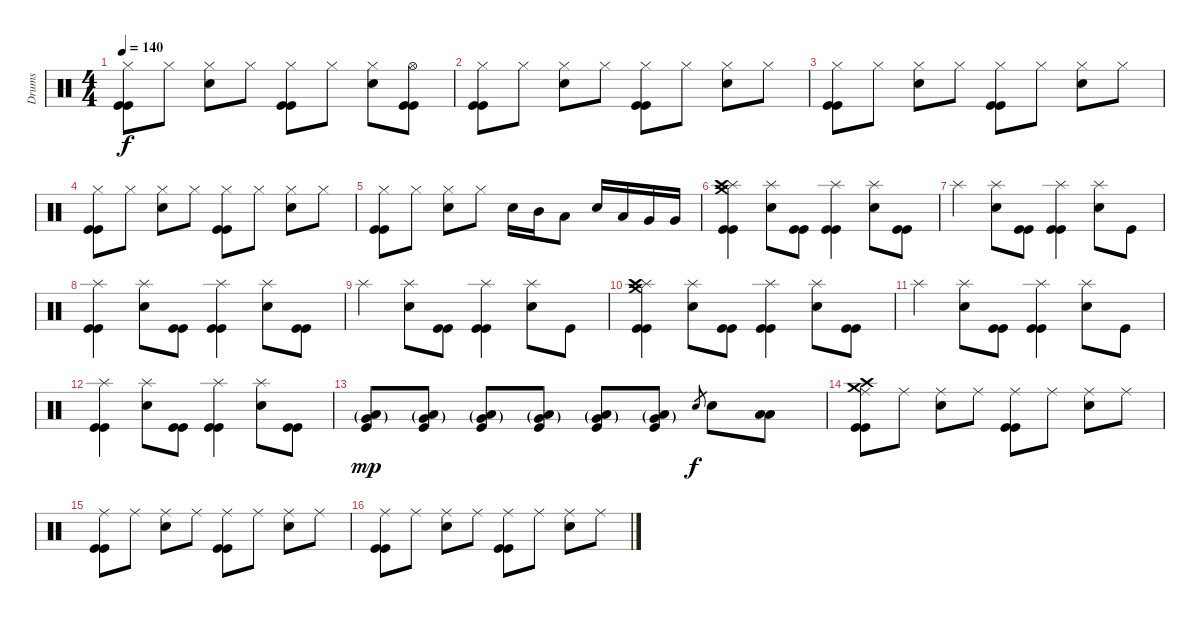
\track ("Drums" "Drums") {instrument percussion}
\staff {score}
\articulation defaults
\ts (4 4)
\tempo 140
\clef neutral
\ks c
("Hi-Hat (closed)" "Kick (hit)" "Kick (hit)").8{dy f} "Hi-Hat (closed)".8 ("Hi-Hat (closed)" "Snare (hit) 2").8 "Hi-Hat (closed)".8 ("Hi-Hat (closed)" "Kick (hit)" "Kick (hit)").8 "Hi-Hat (closed)".8 ("Hi-Hat (closed)" "Snare (hit) 2").8 ("Hi-Hat (open)" "Kick (hit)" "Kick (hit)").8 |
("Hi-Hat (closed)" "Kick (hit)" "Kick (hit)").8 "Hi-Hat (closed)".8 ("Hi-Hat (closed)" "Snare (hit) 2").8 "Hi-Hat (closed)".8 ("Hi-Hat (closed)" "Kick (hit)" "Kick (hit)").8 "Hi-Hat (closed)".8 ("Hi-Hat (closed)" "Snare (hit) 2").8 "Hi-Hat (closed)".8 |
("Hi-Hat (closed)" "Kick (hit)" "Kick (hit)").8 "Hi-Hat (closed)".8 ("Hi-Hat (closed)" "Snare (hit) 2").8 "Hi-Hat (closed)".8 ("Hi-Hat (closed)" "Kick (hit)" "Kick (hit)").8 "Hi-Hat (closed)".8 ("Hi-Hat (closed)" "Snare (hit) 2").8 "Hi-Hat (closed)".8 |
("Hi-Hat (closed)" "Kick (hit)" "Kick (hit)").8 "Hi-Hat (closed)".8 ("Hi-Hat (closed)" "Snare (hit) 2").8 "Hi-Hat (closed)".8 ("Hi-Hat (closed)" "Kick (hit)" "Kick (hit)").8 "Hi-Hat (closed)".8 ("Hi-Hat (closed)" "Snare (hit) 2").8 "Hi-Hat (closed)".8 |
("Hi-Hat (closed)" "Kick (hit)" "Kick (hit)").8 "Hi-Hat (closed)".8 ("Hi-Hat (closed)" "Snare (hit) 2").8 "Hi-Hat (closed)".8 "Snare (hit) 2".16 "Mid Tom (hit)".16 "Low Tom (hit)".8 "Snare (hit) 2".16 "Low Tom (hit)".16 "Very Low Tom (hit)".16 "Very Low Tom (hit)".16 |
("Splash (hit)" "Crash high (hit)" "Crash medium (hit)" "Kick (hit)" "Kick (hit)").4 ("Splash (hit)" "Snare (hit) 2").8 ("Kick (hit)" "Kick (hit)").8 ("Splash (hit)" "Kick (hit)" "Kick (hit)").4 ("Splash (hit)" "Snare (hit) 2").8 ("Kick (hit)" "Kick (hit)").8 |
"Splash (hit)".4 ("Splash (hit)" "Snare (hit) 2").8 ("Kick (hit)" "Kick (hit)").8 ("Splash (hit)" "Kick (hit)" "Kick (hit)").4 ("Splash (hit)" "Snare (hit) 2").8 "Kick (hit)".8 |
("Splash (hit)" "Kick (hit)" "Kick (hit)").4 ("Splash (hit)" "Snare (hit) 2").8 ("Kick (hit)" "Kick (hit)").8 ("Splash (hit)" "Kick (hit)" "Kick (hit)").4 ("Splash (hit)" "Snare (hit) 2").8 ("Kick (hit)" "Kick (hit)").8 |
"Splash (hit)".4 ("Splash (hit)" "Snare (hit) 2").8 ("Kick (hit)" "Kick (hit)").8 ("Splash (hit)" "Kick (hit)" "Kick (hit)").4 ("Splash (hit)" "Snare (hit) 2").8 "Kick (hit)".8 |
("Splash (hit)" "Crash high (hit)" "Crash medium (hit)" "Kick (hit)" "Kick (hit)").4 ("Splash (hit)" "Snare (hit) 2").8 ("Kick (hit)" "Kick (hit)").8 ("Splash (hit)" "Kick (hit)" "Kick (hit)").4 ("Splash (hit)" "Snare (hit) 2").8 ("Kick (hit)" "Kick (hit)").8 |
"Splash (hit)".4 ("Splash (hit)" "Snare (hit) 2").8 ("Kick (hit)" "Kick (hit)").8 ("Splash (hit)" "Kick (hit)" "Kick (hit)").4 ("Splash (hit)" "Snare (hit) 2").8 "Kick (hit)".8 |
("Splash (hit)" "Kick (hit)" "Kick (hit)").4 ("Splash (hit)" "Snare (hit) 2").8 ("Kick (hit)" "Kick (hit)").8 ("Splash (hit)" "Kick (hit)" "Kick (hit)").4 ("Splash (hit)" "Snare (hit) 2").8 ("Kick (hit)" "Kick (hit)").8 |
("Very Low Tom (hit)"{g} "Low Tom (hit)"{g} "Kick (hit)").8{dy mp} ("Very Low Tom (hit)"{g} "Low Tom (hit)"{g} "Kick (hit)").8 ("Very Low Tom (hit)"{g} "Low Tom (hit)"{g} "Kick (hit)").8 ("Very Low Tom (hit)"{g} "Low Tom (hit)"{g} "Kick (hit)").8 ("Very Low Tom (hit)"{g} "Low Tom (hit)"{g} "Kick (hit)").8 ("Very Low Tom (hit)"{g} "Low Tom (hit)"{g} "Kick (hit)").8 "Snare (hit) 2".8{gr dy f} "Snare (hit) 2".8 ("Low Tom (hit)" "Low Tom (hit)").8 |
("Ride (middle)" "Crash high (hit)" "Crash medium (hit)" "Kick (hit)" "Kick (hit)").8 "Ride (middle)".8 ("Ride (middle)" "Snare (hit) 2").8 "Ride (middle)".8 ("Ride (middle)" "Kick (hit)" "Kick (hit)").8 "Ride (middle)".8 ("Ride (middle)" "Snare (hit) 2").8 "Ride (middle)".8 |
("Ride (middle)" "Kick (hit)" "Kick (hit)").8 "Ride (middle)".8 ("Ride (middle)" "Snare (hit) 2").8 "Ride (middle)".8 ("Ride (middle)" "Kick (hit)" "Kick (hit)").8 "Ride (middle)".8 ("Ride (middle)" "Snare (hit) 2").8 "Ride (middle)".8 |
("Ride (middle)" "Kick (hit)" "Kick (hit)").8 "Ride (middle)".8 ("Ride (middle)" "Snare (hit) 2").8 "Ride (middle)".8 ("Ride (middle)" "Kick (hit)" "Kick (hit)").8 "Ride (middle)".8 ("Ride (middle)" "Snare (hit) 2").8 "Ride (middle)".8
